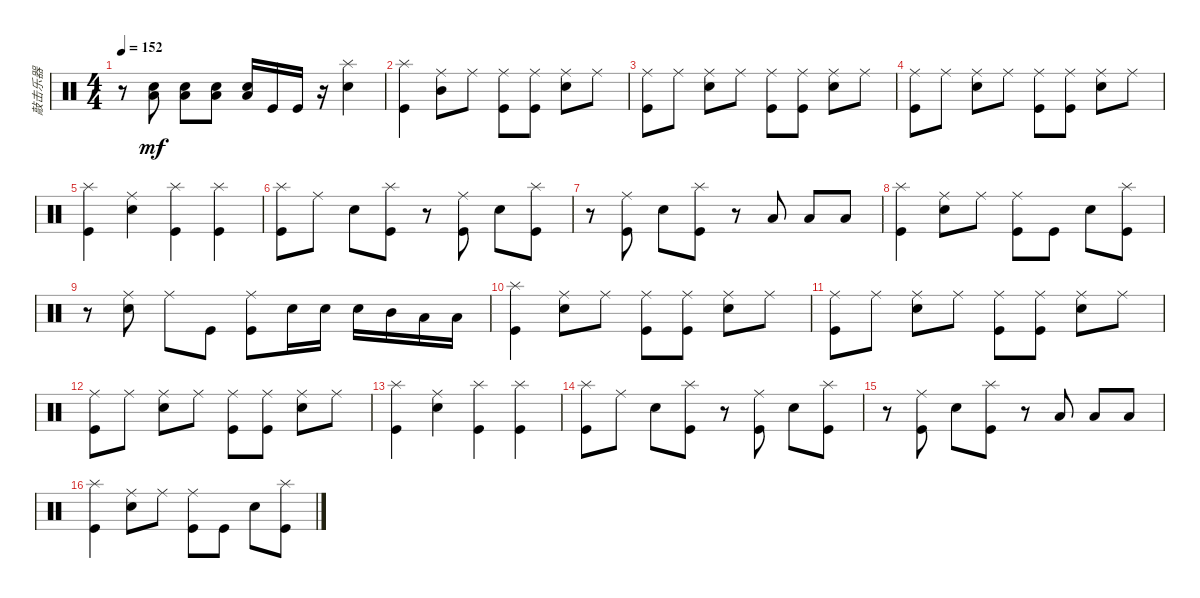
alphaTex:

\track ("敲击乐器" "敲击乐器") {instrument percussion}
\staff {score}
\articulation defaults
\ts (4 4)
\tempo 152
\clef neutral
\ks c
r.8{dy mf} ("Snare (hit) 2" "Low Floor Tom (hit)").8 ("Snare (hit) 2" "Low Floor Tom (hit)").8 ("Snare (hit) 2" "Low Floor Tom (hit)").8 ("Snare (hit) 2" "Low Floor Tom (hit)").16 "Kick (hit)".16 "Kick (hit)".16 r.16 ("Snare (hit) 2" "Splash (hit)").4 |
("Splash (hit)" "Kick (hit)").4 ("Ride (middle)" "Mid Tom (hit)").8 "Ride (middle)".8 ("Ride (middle)" "Kick (hit)").8 ("Ride (middle)" "Kick (hit)").8 ("Ride (middle)" "Snare (hit) 2").8 "Ride (middle)".8 |
("Ride (middle)" "Kick (hit)").8 "Ride (middle)".8 ("Ride (middle)" "Snare (hit) 2").8 "Ride (middle)".8 ("Ride (middle)" "Kick (hit)").8 ("Ride (middle)" "Kick (hit)").8 ("Ride (middle)" "Snare (hit) 2").8 "Ride (middle)".8 |
("Ride (middle)" "Kick (hit)").8 "Ride (middle)".8 ("Ride (middle)" "Snare (hit) 2").8 "Ride (middle)".8 ("Ride (middle)" "Kick (hit)").8 ("Ride (middle)" "Kick (hit)").8 ("Ride (middle)" "Snare (hit) 2").8 "Ride (middle)".8 |
("Splash (hit)" "Kick (hit)").4 ("Ride (middle)" "Snare (hit) 2").4 ("Splash (hit)" "Kick (hit)").4 ("Splash (hit)" "Kick (hit)").4 |
("Splash (hit)" "Kick (hit)").8 "Ride (middle)".8 "Snare (hit) 2".8 ("Splash (hit)" "Kick (hit)").8 r.8 ("Ride (middle)" "Kick (hit)").8 "Snare (hit) 2".8 ("Splash (hit)" "Kick (hit)").8 |
r.8 ("Ride (middle)" "Kick (hit)").8 "Snare (hit) 2".8 ("Splash (hit)" "Kick (hit)").8 r.8 "Low Tom (hit)".8 "Low Tom (hit)".8 "Low Floor Tom (hit)".8 |
("Splash (hit)" "Kick (hit)").4 ("Ride (middle)" "Snare (hit) 2").8 "Ride (middle)".8 ("Ride (middle)" "Kick (hit)").8 "Kick (hit)".8 "Snare (hit) 2".8 ("Splash (hit)" "Kick (hit)").8 |
r.8 ("Ride (middle)" "Snare (hit) 2").8 "Ride (middle)".8 "Kick (hit)".8 ("Ride (middle)" "Kick (hit)").8 "Snare (hit) 2".16 "Snare (hit) 2".16 "Snare (hit) 2".16 "Mid Tom (hit)".16 "Low Tom (hit)".16 "Low Floor Tom (hit)".16 |
("Splash (hit)" "Kick (hit)").4 ("Ride (middle)" "Snare (hit) 2").8 "Ride (middle)".8 ("Ride (middle)" "Kick (hit)").8 ("Ride (middle)" "Kick (hit)").8 ("Ride (middle)" "Snare (hit) 2").8 "Ride (middle)".8 |
("Ride (middle)" "Kick (hit)").8 "Ride (middle)".8 ("Ride (middle)" "Snare (hit) 2").8 "Ride (middle)".8 ("Ride (middle)" "Kick (hit)").8 ("Ride (middle)" "Kick (hit)").8 ("Ride (middle)" "Snare (hit) 2").8 "Ride (middle)".8 |
("Ride (middle)" "Kick (hit)").8 "Ride (middle)".8 ("Ride (middle)" "Snare (hit) 2").8 "Ride (middle)".8 ("Ride (middle)" "Kick (hit)").8 ("Ride (middle)" "Kick (hit)").8 ("Ride (middle)" "Snare (hit) 2").8 "Ride (middle)".8 |
("Splash (hit)" "Kick (hit)").4 ("Ride (middle)" "Snare (hit) 2").4 ("Splash (hit)" "Kick (hit)").4 ("Splash (hit)" "Kick (hit)").4 |
("Splash (hit)" "Kick (hit)").8 "Ride (middle)".8 "Snare (hit) 2".8 ("Splash (hit)" "Kick (hit)").8 r.8 ("Ride (middle)" "Kick (hit)").8 "Snare (hit) 2".8 ("Splash (hit)" "Kick (hit)").8 |
r.8 ("Ride (middle)" "Kick (hit)").8 "Snare (hit) 2".8 ("Splash (hit)" "Kick (hit)").8 r.8 "Low Tom (hit)".8 "Low Tom (hit)".8 "Low Floor Tom (hit)".8 |
("Splash (hit)" "Kick (hit)").4 ("Ride (middle)" "Snare (hit) 2").8 "Ride (middle)".8 ("Ride (middle)" "Kick (hit)").8 "Kick (hit)".8 "Snare (hit) 2".8 ("Splash (hit)" "Kick (hit)").8
